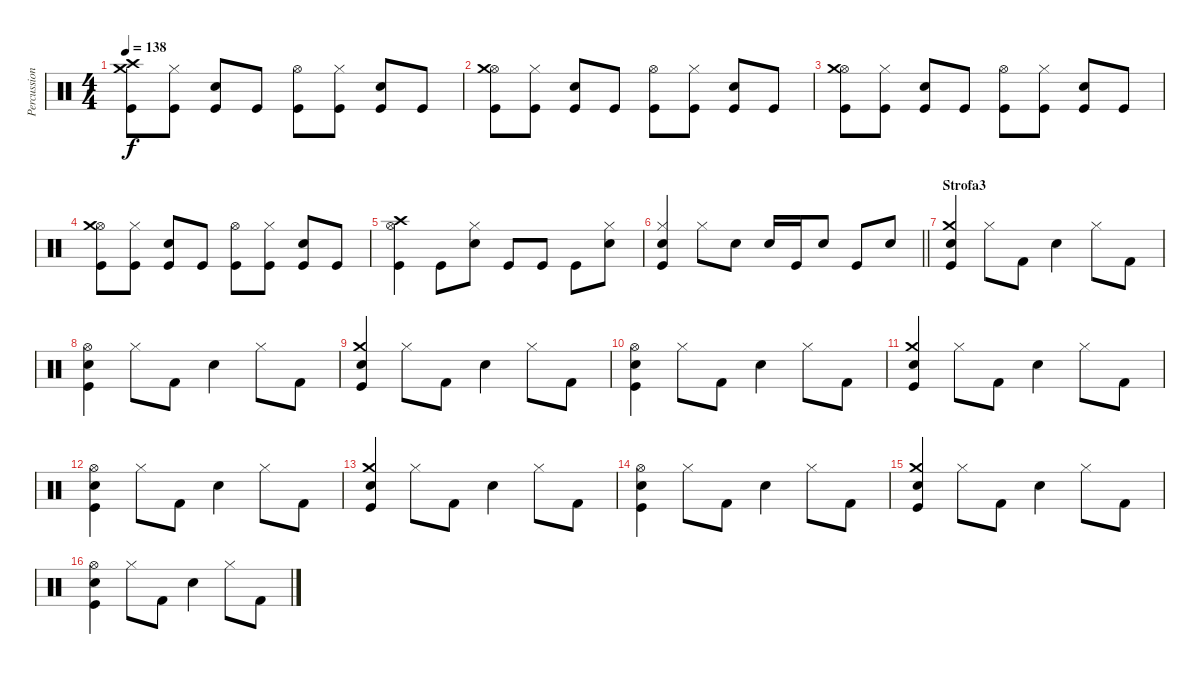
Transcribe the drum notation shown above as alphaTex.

\track ("Percussioni" "Percussion") {instrument percussion}
\staff {score}
\articulation defaults
\ts (4 4)
\tempo 138
\clef neutral
\ks c
("Kick (hit)" "Crash high (hit)" "Crash medium (hit)").8{dy f} ("Hi-Hat (closed)" "Kick (hit)").8 ("Electric Snare (hit)" "Kick (hit)").8 "Kick (hit)".8 ("Hi-Hat (open)" "Kick (hit)").8 ("Hi-Hat (closed)" "Kick (hit)").8 ("Electric Snare (hit)" "Kick (hit)").8 "Kick (hit)".8 |
("Kick (hit)" "Hi-Hat (open)" "Crash medium (hit)").8 ("Hi-Hat (closed)" "Kick (hit)").8 ("Electric Snare (hit)" "Kick (hit)").8 "Kick (hit)".8 ("Hi-Hat (open)" "Kick (hit)").8 ("Hi-Hat (closed)" "Kick (hit)").8 ("Electric Snare (hit)" "Kick (hit)").8 "Kick (hit)".8 |
("Kick (hit)" "Hi-Hat (open)" "Crash medium (hit)").8 ("Hi-Hat (closed)" "Kick (hit)").8 ("Electric Snare (hit)" "Kick (hit)").8 "Kick (hit)".8 ("Hi-Hat (open)" "Kick (hit)").8 ("Hi-Hat (closed)" "Kick (hit)").8 ("Electric Snare (hit)" "Kick (hit)").8 "Kick (hit)".8 |
("Kick (hit)" "Hi-Hat (open)" "Crash medium (hit)").8 ("Hi-Hat (closed)" "Kick (hit)").8 ("Electric Snare (hit)" "Kick (hit)").8 "Kick (hit)".8 ("Hi-Hat (open)" "Kick (hit)").8 ("Hi-Hat (closed)" "Kick (hit)").8 ("Electric Snare (hit)" "Kick (hit)").8 "Kick (hit)".8 |
("Crash high (hit)" "Hi-Hat (open)" "Kick (hit)").4 "Kick (hit)".8 ("Electric Snare (hit)" "Hi-Hat (closed)").8 "Kick (hit)".8 "Kick (hit)".8 "Kick (hit)".8 ("Electric Snare (hit)" "Hi-Hat (closed)").8 |
\barLineRight lightlight
("Electric Snare (hit)" "Kick (hit)" "Hi-Hat (closed)").4 "Hi-Hat (closed)".8 "Electric Snare (hit)".8 "Electric Snare (hit)".16 "Kick (hit)".16 "Electric Snare (hit)".8 "Kick (hit)".8 "Electric Snare (hit)".8 |
\section ("" "Strofa3")
("Crash medium (hit)" "Electric Snare (hit)" "Kick (hit)").4{volume 10} "Hi-Hat (closed)".8 "Kick (hit) 2".8 "Electric Snare (hit)".4 "Hi-Hat (closed)".8 "Kick (hit) 2".8 |
("Hi-Hat (open)" "Electric Snare (hit)" "Kick (hit)").4 "Hi-Hat (closed)".8 "Kick (hit) 2".8 "Electric Snare (hit)".4 "Hi-Hat (closed)".8 "Kick (hit) 2".8 |
("Crash medium (hit)" "Electric Snare (hit)" "Kick (hit)").4 "Hi-Hat (closed)".8 "Kick (hit) 2".8 "Electric Snare (hit)".4 "Hi-Hat (closed)".8 "Kick (hit) 2".8 |
("Hi-Hat (open)" "Electric Snare (hit)" "Kick (hit)").4 "Hi-Hat (closed)".8 "Kick (hit) 2".8 "Electric Snare (hit)".4 "Hi-Hat (closed)".8 "Kick (hit) 2".8 |
("Crash medium (hit)" "Electric Snare (hit)" "Kick (hit)").4 "Hi-Hat (closed)".8 "Kick (hit) 2".8 "Electric Snare (hit)".4 "Hi-Hat (closed)".8 "Kick (hit) 2".8 |
("Hi-Hat (open)" "Electric Snare (hit)" "Kick (hit)").4 "Hi-Hat (closed)".8 "Kick (hit) 2".8 "Electric Snare (hit)".4 "Hi-Hat (closed)".8 "Kick (hit) 2".8 |
("Crash medium (hit)" "Electric Snare (hit)" "Kick (hit)").4 "Hi-Hat (closed)".8 "Kick (hit) 2".8 "Electric Snare (hit)".4 "Hi-Hat (closed)".8 "Kick (hit) 2".8 |
("Hi-Hat (open)" "Electric Snare (hit)" "Kick (hit)").4 "Hi-Hat (closed)".8 "Kick (hit) 2".8 "Electric Snare (hit)".4 "Hi-Hat (closed)".8 "Kick (hit) 2".8 |
("Crash medium (hit)" "Electric Snare (hit)" "Kick (hit)").4 "Hi-Hat (closed)".8 "Kick (hit) 2".8 "Electric Snare (hit)".4 "Hi-Hat (closed)".8 "Kick (hit) 2".8 |
("Hi-Hat (open)" "Electric Snare (hit)" "Kick (hit)").4 "Hi-Hat (closed)".8 "Kick (hit) 2".8 "Electric Snare (hit)".4 "Hi-Hat (closed)".8 "Kick (hit) 2".8
